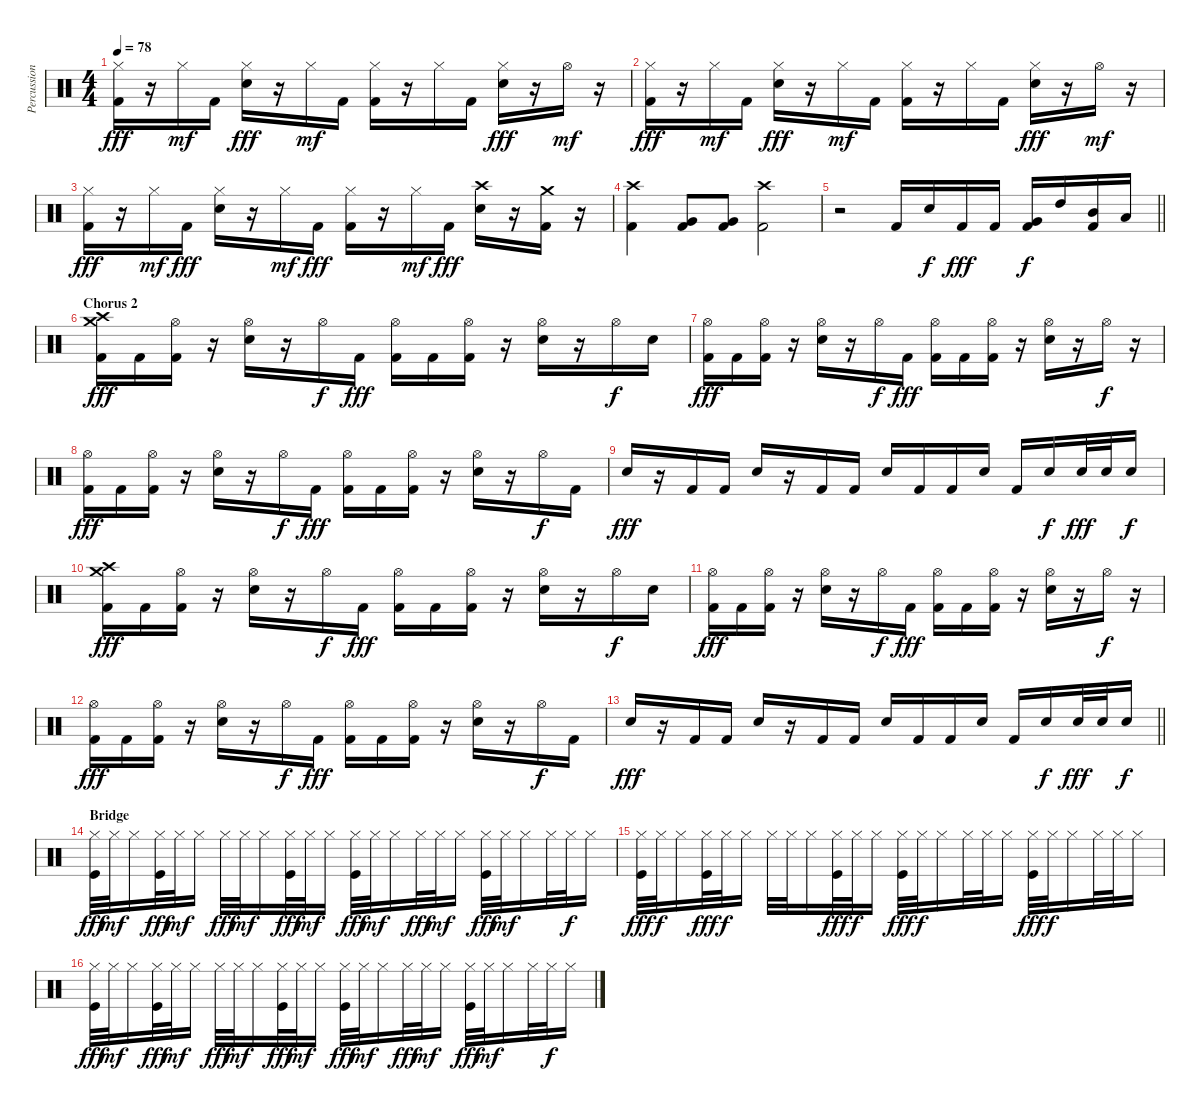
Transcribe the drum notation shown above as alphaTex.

\track ("Percussion" "Percussion") {instrument percussion}
\staff {score}
\articulation defaults
\ts (4 4)
\tempo 78
\clef neutral
\ks c
("Hi-Hat (closed)" "Kick (hit) 2").16{dy fff} r.16 "Hi-Hat (closed)".16{dy mf} "Kick (hit) 2".16 ("Hi-Hat (closed)" "Electric Snare (hit)").16{dy fff} r.16 "Hi-Hat (closed)".16{dy mf} "Kick (hit) 2".16 ("Hi-Hat (closed)" "Kick (hit) 2").16 r.16 "Hi-Hat (closed)".16 "Kick (hit) 2".16 ("Hi-Hat (closed)" "Electric Snare (hit)").16{dy fff} r.16 "Hi-Hat (open)".16{dy mf} r.16 |
("Hi-Hat (closed)" "Kick (hit) 2").16{dy fff} r.16 "Hi-Hat (closed)".16{dy mf} "Kick (hit) 2".16 ("Hi-Hat (closed)" "Electric Snare (hit)").16{dy fff} r.16 "Hi-Hat (closed)".16{dy mf} "Kick (hit) 2".16 ("Hi-Hat (closed)" "Kick (hit) 2").16 r.16 "Hi-Hat (closed)".16 "Kick (hit) 2".16 ("Hi-Hat (closed)" "Electric Snare (hit)").16{dy fff} r.16 "Hi-Hat (open)".16{dy mf} r.16 |
("Hi-Hat (closed)" "Kick (hit) 2").16{dy fff} r.16 "Hi-Hat (closed)".16{dy mf} "Kick (hit) 2".16{dy fff} ("Hi-Hat (closed)" "Electric Snare (hit)").16 r.16 "Hi-Hat (closed)".16{dy mf} "Kick (hit) 2".16{dy fff} ("Hi-Hat (closed)" "Kick (hit) 2").16 r.16 "Hi-Hat (closed)".16{dy mf} "Kick (hit) 2".16{dy fff} ("Crash high (hit)" "Electric Snare (hit)").16 r.16 ("Crash medium (hit)" "Kick (hit) 2").16 r.16 |
("Crash high (hit)" "Kick (hit) 2").4 ("Very Low Tom (hit)" "Kick (hit) 2").8 ("Very Low Tom (hit)" "Kick (hit) 2").8 ("Crash high (hit)" "Kick (hit) 2").2 |
\barLineRight lightlight
r.2 "Kick (hit) 2".16 "Electric Snare (hit)".16{dy f} "Kick (hit) 2".16{dy fff} "Kick (hit) 2".16 ("Very Low Tom (hit)" "Kick (hit) 2").16{dy f} "High Tom (hit)".16 ("Mid Tom (hit)" "Kick (hit) 2").16 "Low Tom (hit)".16 |
\section ("" "Chorus 2")
("Crash high (hit)" "Crash medium (hit)" "Kick (hit) 2").16{dy fff} "Kick (hit) 2".16 ("Hi-Hat (open)" "Kick (hit) 2").16 r.16 ("Hi-Hat (open)" "Electric Snare (hit)").16 r.16 "Hi-Hat (open)".16{dy f} "Kick (hit) 2".16{dy fff} ("Hi-Hat (open)" "Kick (hit) 2").16 "Kick (hit) 2".16 ("Hi-Hat (open)" "Kick (hit) 2").16 r.16 ("Hi-Hat (open)" "Electric Snare (hit)").16 r.16 "Hi-Hat (open)".16{dy f} "Electric Snare (hit)".16 |
("Hi-Hat (open)" "Kick (hit) 2").16{dy fff} "Kick (hit) 2".16 ("Hi-Hat (open)" "Kick (hit) 2").16 r.16 ("Hi-Hat (open)" "Electric Snare (hit)").16 r.16 "Hi-Hat (open)".16{dy f} "Kick (hit) 2".16{dy fff} ("Hi-Hat (open)" "Kick (hit) 2").16 "Kick (hit) 2".16 ("Hi-Hat (open)" "Kick (hit) 2").16 r.16 ("Hi-Hat (open)" "Electric Snare (hit)").16 r.16 "Hi-Hat (open)".16{dy f} r.16 |
("Hi-Hat (open)" "Kick (hit) 2").16{dy fff} "Kick (hit) 2".16 ("Hi-Hat (open)" "Kick (hit) 2").16 r.16 ("Hi-Hat (open)" "Electric Snare (hit)").16 r.16 "Hi-Hat (open)".16{dy f} "Kick (hit) 2".16{dy fff} ("Hi-Hat (open)" "Kick (hit) 2").16 "Kick (hit) 2".16 ("Hi-Hat (open)" "Kick (hit) 2").16 r.16 ("Hi-Hat (open)" "Electric Snare (hit)").16 r.16 "Hi-Hat (open)".16{dy f} "Kick (hit) 2".16 |
"Electric Snare (hit)".16{dy fff} r.16 "Kick (hit) 2".16 "Kick (hit) 2".16 "Electric Snare (hit)".16 r.16 "Kick (hit) 2".16 "Kick (hit) 2".16 "Electric Snare (hit)".16 "Kick (hit) 2".16 "Kick (hit) 2".16 "Electric Snare (hit)".16 "Kick (hit) 2".16 "Electric Snare (hit)".16{dy f} "Electric Snare (hit)".32{dy fff} "Electric Snare (hit)".32 "Electric Snare (hit)".16{dy f} |
("Crash high (hit)" "Crash medium (hit)" "Kick (hit) 2").16{dy fff} "Kick (hit) 2".16 ("Hi-Hat (open)" "Kick (hit) 2").16 r.16 ("Hi-Hat (open)" "Electric Snare (hit)").16 r.16 "Hi-Hat (open)".16{dy f} "Kick (hit) 2".16{dy fff} ("Hi-Hat (open)" "Kick (hit) 2").16 "Kick (hit) 2".16 ("Hi-Hat (open)" "Kick (hit) 2").16 r.16 ("Hi-Hat (open)" "Electric Snare (hit)").16 r.16 "Hi-Hat (open)".16{dy f} "Electric Snare (hit)".16 |
("Hi-Hat (open)" "Kick (hit) 2").16{dy fff} "Kick (hit) 2".16 ("Hi-Hat (open)" "Kick (hit) 2").16 r.16 ("Hi-Hat (open)" "Electric Snare (hit)").16 r.16 "Hi-Hat (open)".16{dy f} "Kick (hit) 2".16{dy fff} ("Hi-Hat (open)" "Kick (hit) 2").16 "Kick (hit) 2".16 ("Hi-Hat (open)" "Kick (hit) 2").16 r.16 ("Hi-Hat (open)" "Electric Snare (hit)").16 r.16 "Hi-Hat (open)".16{dy f} r.16 |
("Hi-Hat (open)" "Kick (hit) 2").16{dy fff} "Kick (hit) 2".16 ("Hi-Hat (open)" "Kick (hit) 2").16 r.16 ("Hi-Hat (open)" "Electric Snare (hit)").16 r.16 "Hi-Hat (open)".16{dy f} "Kick (hit) 2".16{dy fff} ("Hi-Hat (open)" "Kick (hit) 2").16 "Kick (hit) 2".16 ("Hi-Hat (open)" "Kick (hit) 2").16 r.16 ("Hi-Hat (open)" "Electric Snare (hit)").16 r.16 "Hi-Hat (open)".16{dy f} "Kick (hit) 2".16 |
\barLineRight lightlight "Electric Snare (hit)".16{dy fff}
r.16 "Kick (hit) 2".16 "Kick (hit) 2".16 "Electric Snare (hit)".16 r.16 "Kick (hit) 2".16 "Kick (hit) 2".16 "Electric Snare (hit)".16 "Kick (hit) 2".16 "Kick (hit) 2".16 "Electric Snare (hit)".16 "Kick (hit) 2".16 "Electric Snare (hit)".16{dy f} "Electric Snare (hit)".32{dy fff} "Electric Snare (hit)".32 "Electric Snare (hit)".16{dy f} |
\section ("" "Bridge")
("Hi-Hat (closed)" "Kick (hit)").32{dy fff} "Hi-Hat (closed)".32{dy mf} "Hi-Hat (closed)".16 ("Hi-Hat (closed)" "Kick (hit)").32{dy fff} "Hi-Hat (closed)".32{dy mf} "Hi-Hat (closed)".16 "Hi-Hat (closed)".32{dy fff} "Hi-Hat (closed)".32{dy mf} "Hi-Hat (closed)".16 ("Hi-Hat (closed)" "Kick (hit)").32{dy fff} "Hi-Hat (closed)".32{dy mf} "Hi-Hat (closed)".16 ("Hi-Hat (closed)" "Kick (hit)").32{dy fff} "Hi-Hat (closed)".32{dy mf} "Hi-Hat (closed)".16 "Hi-Hat (closed)".32{dy fff} "Hi-Hat (closed)".32{dy mf} "Hi-Hat (closed)".16 ("Hi-Hat (closed)" "Kick (hit)").32{dy fff} "Hi-Hat (closed)".32{dy mf} "Hi-Hat (closed)".16 "Hi-Hat (closed)".32 "Hi-Hat (closed)".32{dy f} "Hi-Hat (closed)".16 |
("Hi-Hat (closed)" "Kick (hit)").32{dy fff} "Hi-Hat (closed)".32{dy f} "Hi-Hat (closed)".16 ("Hi-Hat (closed)" "Kick (hit)").32{dy fff} "Hi-Hat (closed)".32{dy f} "Hi-Hat (closed)".16 "Hi-Hat (closed)".32 "Hi-Hat (closed)".32 "Hi-Hat (closed)".16 ("Hi-Hat (closed)" "Kick (hit)").32{dy fff} "Hi-Hat (closed)".32{dy f} "Hi-Hat (closed)".16 ("Hi-Hat (closed)" "Kick (hit)").32{dy fff} "Hi-Hat (closed)".32{dy f} "Hi-Hat (closed)".16 "Hi-Hat (closed)".32 "Hi-Hat (closed)".32 "Hi-Hat (closed)".16 ("Hi-Hat (closed)" "Kick (hit)").32{dy fff} "Hi-Hat (closed)".32{dy f} "Hi-Hat (closed)".16 "Hi-Hat (closed)".32 "Hi-Hat (closed)".32 "Hi-Hat (closed)".16 |
("Hi-Hat (closed)" "Kick (hit)").32{dy fff} "Hi-Hat (closed)".32{dy mf} "Hi-Hat (closed)".16 ("Hi-Hat (closed)" "Kick (hit)").32{dy fff} "Hi-Hat (closed)".32{dy mf} "Hi-Hat (closed)".16 "Hi-Hat (closed)".32{dy fff} "Hi-Hat (closed)".32{dy mf} "Hi-Hat (closed)".16 ("Hi-Hat (closed)" "Kick (hit)").32{dy fff} "Hi-Hat (closed)".32{dy mf} "Hi-Hat (closed)".16 ("Hi-Hat (closed)" "Kick (hit)").32{dy fff} "Hi-Hat (closed)".32{dy mf} "Hi-Hat (closed)".16 "Hi-Hat (closed)".32{dy fff} "Hi-Hat (closed)".32{dy mf} "Hi-Hat (closed)".16 ("Hi-Hat (closed)" "Kick (hit)").32{dy fff} "Hi-Hat (closed)".32{dy mf} "Hi-Hat (closed)".16 "Hi-Hat (closed)".32 "Hi-Hat (closed)".32{dy f} "Hi-Hat (closed)".16
